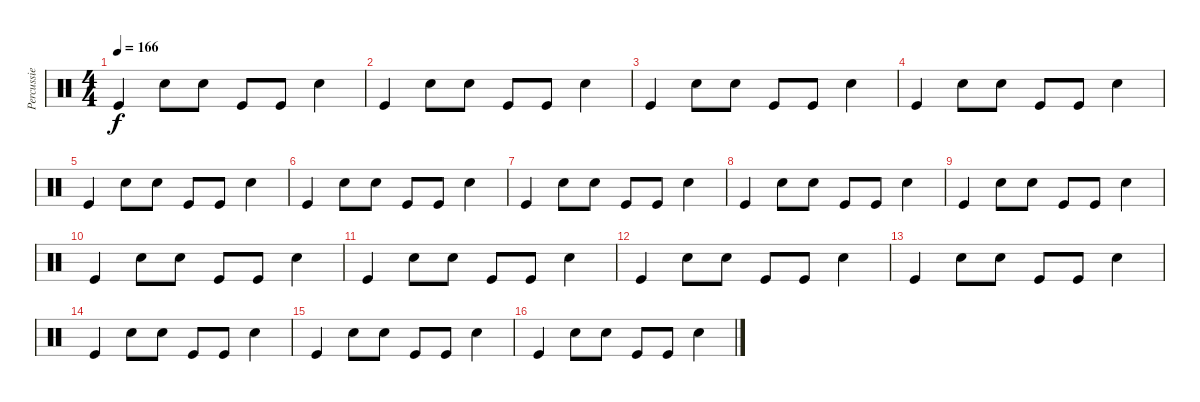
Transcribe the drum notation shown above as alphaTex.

\track ("Percussie" "Percussie") {instrument percussion}
\staff {score}
\articulation defaults
\ts (4 4)
\tempo 166
\clef neutral
\ks c "Kick (hit)".4{dy f} "Electric Snare (hit)".8 "Electric Snare (hit)".8 "Kick (hit)".8 "Kick (hit)".8 "Electric Snare (hit)".4
|
"Kick (hit)".4 "Electric Snare (hit)".8 "Electric Snare (hit)".8 "Kick (hit)".8 "Kick (hit)".8 "Electric Snare (hit)".4 |
"Kick (hit)".4 "Electric Snare (hit)".8 "Electric Snare (hit)".8 "Kick (hit)".8 "Kick (hit)".8 "Electric Snare (hit)".4 |
"Kick (hit)".4 "Electric Snare (hit)".8 "Electric Snare (hit)".8 "Kick (hit)".8 "Kick (hit)".8 "Electric Snare (hit)".4 |
"Kick (hit)".4 "Electric Snare (hit)".8 "Electric Snare (hit)".8 "Kick (hit)".8 "Kick (hit)".8 "Electric Snare (hit)".4 |
"Kick (hit)".4 "Electric Snare (hit)".8 "Electric Snare (hit)".8 "Kick (hit)".8 "Kick (hit)".8 "Electric Snare (hit)".4 |
"Kick (hit)".4 "Electric Snare (hit)".8 "Electric Snare (hit)".8 "Kick (hit)".8 "Kick (hit)".8 "Electric Snare (hit)".4 |
"Kick (hit)".4 "Electric Snare (hit)".8 "Electric Snare (hit)".8 "Kick (hit)".8 "Kick (hit)".8 "Electric Snare (hit)".4 |
"Kick (hit)".4 "Electric Snare (hit)".8 "Electric Snare (hit)".8 "Kick (hit)".8 "Kick (hit)".8 "Electric Snare (hit)".4 |
"Kick (hit)".4 "Electric Snare (hit)".8 "Electric Snare (hit)".8 "Kick (hit)".8 "Kick (hit)".8 "Electric Snare (hit)".4 |
"Kick (hit)".4 "Electric Snare (hit)".8 "Electric Snare (hit)".8 "Kick (hit)".8 "Kick (hit)".8 "Electric Snare (hit)".4 |
"Kick (hit)".4 "Electric Snare (hit)".8 "Electric Snare (hit)".8 "Kick (hit)".8 "Kick (hit)".8 "Electric Snare (hit)".4 |
"Kick (hit)".4 "Electric Snare (hit)".8 "Electric Snare (hit)".8 "Kick (hit)".8 "Kick (hit)".8 "Electric Snare (hit)".4 |
"Kick (hit)".4 "Electric Snare (hit)".8 "Electric Snare (hit)".8 "Kick (hit)".8 "Kick (hit)".8 "Electric Snare (hit)".4 |
"Kick (hit)".4 "Electric Snare (hit)".8 "Electric Snare (hit)".8 "Kick (hit)".8 "Kick (hit)".8 "Electric Snare (hit)".4 |
"Kick (hit)".4 "Electric Snare (hit)".8 "Electric Snare (hit)".8 "Kick (hit)".8 "Kick (hit)".8 "Electric Snare (hit)".4
